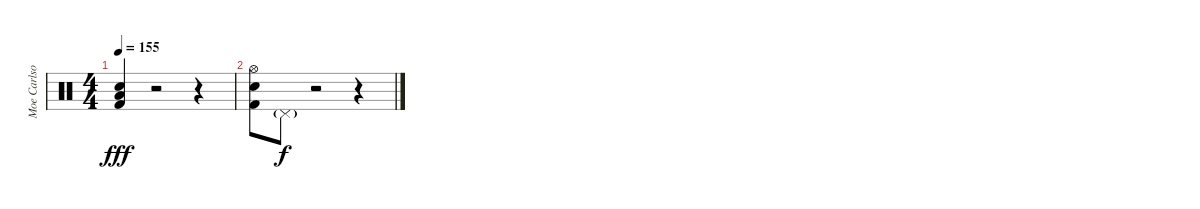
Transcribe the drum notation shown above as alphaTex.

\track ("Moe Carlson" "Moe Carlso") {instrument percussion}
\staff {score}
\articulation defaults
\ts (4 4)
\tempo 155
\clef neutral
\ks c
("Electric Snare (hit)" "Low Floor Tom (hit)" "Kick (hit) 2").4{dy fff} r.2 r.4 |
("Hi-Hat (open)" "Electric Snare (hit)" "Kick (hit) 2").8 "Pedal Hi-Hat (hit)"{g}.8{dy f} r.2 r.4
